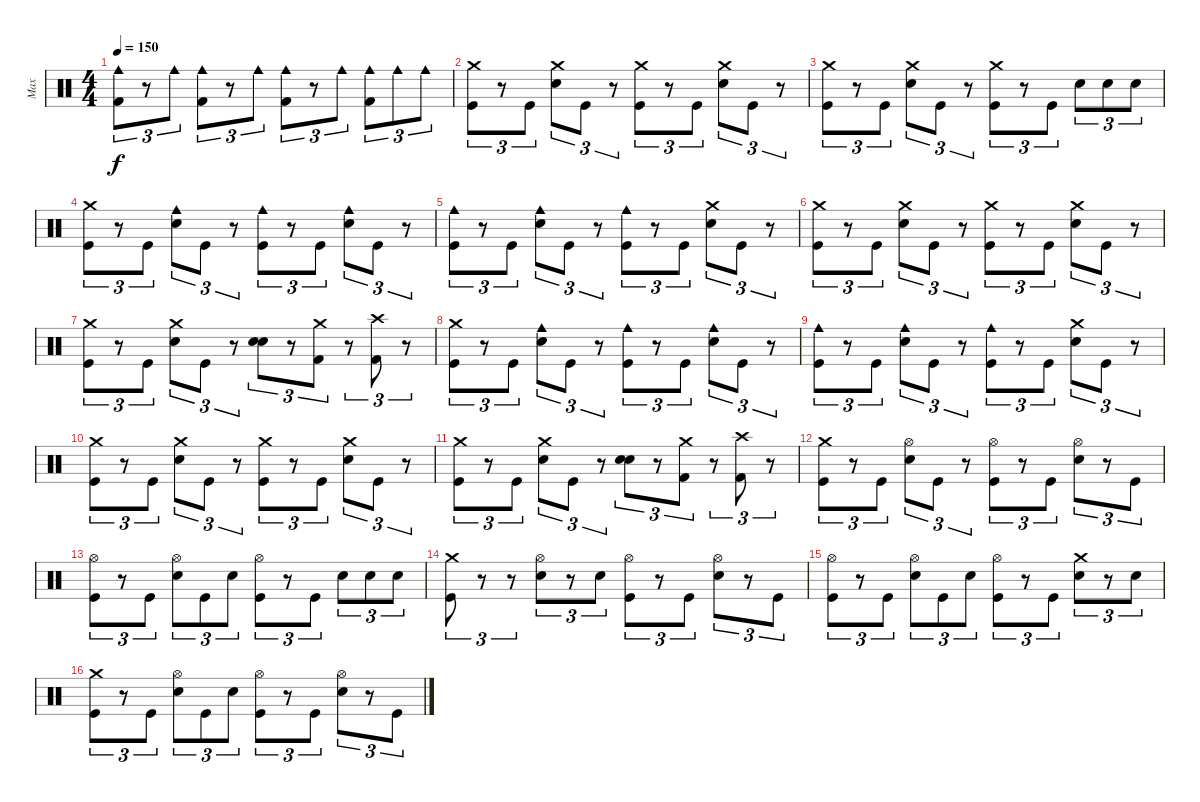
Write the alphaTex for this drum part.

\track ("Max" "Max") {instrument percussion}
\staff {score}
\articulation defaults
\ts (4 4)
\tempo 150
\clef neutral
\ks c
("Cowbell medium (hit)" "Kick (hit) 2").8{tu (3 2) dy f} r.8{tu (3 2)} "Cowbell medium (hit)".8{tu (3 2)} ("Cowbell medium (hit)" "Kick (hit) 2").8{tu (3 2)} r.8{tu (3 2)} "Cowbell medium (hit)".8{tu (3 2)} ("Cowbell medium (hit)" "Kick (hit) 2").8{tu (3 2)} r.8{tu (3 2)} "Cowbell medium (hit)".8{tu (3 2)} ("Cowbell medium (hit)" "Kick (hit) 2").8{tu (3 2)} "Cowbell medium (hit)".8{tu (3 2)} "Cowbell medium (hit)".8{tu (3 2)} |
("Crash medium (hit)" "Kick (hit)").8{tu (3 2)} r.8{tu (3 2)} "Kick (hit)".8{tu (3 2)} ("Crash medium (hit)" "Electric Snare (hit)").8{tu (3 2)} "Kick (hit)".8{tu (3 2)} r.8{tu (3 2)} ("Crash medium (hit)" "Kick (hit)").8{tu (3 2)} r.8{tu (3 2)} "Kick (hit)".8{tu (3 2)} ("Crash medium (hit)" "Electric Snare (hit)").8{tu (3 2)} "Kick (hit)".8{tu (3 2)} r.8{tu (3 2)} |
("Crash medium (hit)" "Kick (hit)").8{tu (3 2)} r.8{tu (3 2)} "Kick (hit)".8{tu (3 2)} ("Crash medium (hit)" "Electric Snare (hit)").8{tu (3 2)} "Kick (hit)".8{tu (3 2)} r.8{tu (3 2)} ("Crash medium (hit)" "Kick (hit)").8{tu (3 2)} r.8{tu (3 2)} "Kick (hit)".8{tu (3 2)} "Electric Snare (hit)".8{tu (3 2)} "Electric Snare (hit)".8{tu (3 2)} "Electric Snare (hit)".8{tu (3 2)} |
("Crash medium (hit)" "Kick (hit)").8{tu (3 2)} r.8{tu (3 2)} "Kick (hit)".8{tu (3 2)} ("Cowbell medium (hit)" "Electric Snare (hit)").8{tu (3 2)} "Kick (hit)".8{tu (3 2)} r.8{tu (3 2)} ("Cowbell medium (hit)" "Kick (hit)").8{tu (3 2)} r.8{tu (3 2)} "Kick (hit)".8{tu (3 2)} ("Cowbell medium (hit)" "Electric Snare (hit)").8{tu (3 2)} "Kick (hit)".8{tu (3 2)} r.8{tu (3 2)} |
("Cowbell medium (hit)" "Kick (hit)").8{tu (3 2)} r.8{tu (3 2)} "Kick (hit)".8{tu (3 2)} ("Cowbell medium (hit)" "Electric Snare (hit)").8{tu (3 2)} "Kick (hit)".8{tu (3 2)} r.8{tu (3 2)} ("Cowbell medium (hit)" "Kick (hit)").8{tu (3 2)} r.8{tu (3 2)} "Kick (hit)".8{tu (3 2)} ("Crash medium (hit)" "Electric Snare (hit)").8{tu (3 2)} "Kick (hit)".8{tu (3 2)} r.8{tu (3 2)} |
("Crash medium (hit)" "Kick (hit)").8{tu (3 2)} r.8{tu (3 2)} "Kick (hit)".8{tu (3 2)} ("Crash medium (hit)" "Electric Snare (hit)").8{tu (3 2)} "Kick (hit)".8{tu (3 2)} r.8{tu (3 2)} ("Crash medium (hit)" "Kick (hit)").8{tu (3 2)} r.8{tu (3 2)} "Kick (hit)".8{tu (3 2)} ("Crash medium (hit)" "Electric Snare (hit)").8{tu (3 2)} "Kick (hit)".8{tu (3 2)} r.8{tu (3 2)} |
("Crash medium (hit)" "Kick (hit)").8{tu (3 2)} r.8{tu (3 2)} "Kick (hit)".8{tu (3 2)} ("Crash medium (hit)" "Electric Snare (hit)").8{tu (3 2)} "Kick (hit)".8{tu (3 2)} r.8{tu (3 2)} ("Electric Snare (hit)" "Electric Snare (hit)").8{tu (3 2) bu 60} r.8{tu (3 2)} ("Crash medium (hit)" "Kick (hit) 2").8{tu (3 2)} r.8{tu (3 2)} ("Crash high (hit)" "Kick (hit) 2").8{tu (3 2)} r.8{tu (3 2)} |
("Crash medium (hit)" "Kick (hit)").8{tu (3 2)} r.8{tu (3 2)} "Kick (hit)".8{tu (3 2)} ("Cowbell medium (hit)" "Electric Snare (hit)").8{tu (3 2)} "Kick (hit)".8{tu (3 2)} r.8{tu (3 2)} ("Cowbell medium (hit)" "Kick (hit)").8{tu (3 2)} r.8{tu (3 2)} "Kick (hit)".8{tu (3 2)} ("Cowbell medium (hit)" "Electric Snare (hit)").8{tu (3 2)} "Kick (hit)".8{tu (3 2)} r.8{tu (3 2)} |
("Cowbell medium (hit)" "Kick (hit)").8{tu (3 2)} r.8{tu (3 2)} "Kick (hit)".8{tu (3 2)} ("Cowbell medium (hit)" "Electric Snare (hit)").8{tu (3 2)} "Kick (hit)".8{tu (3 2)} r.8{tu (3 2)} ("Cowbell medium (hit)" "Kick (hit)").8{tu (3 2)} r.8{tu (3 2)} "Kick (hit)".8{tu (3 2)} ("Crash medium (hit)" "Electric Snare (hit)").8{tu (3 2)} "Kick (hit)".8{tu (3 2)} r.8{tu (3 2)} |
("Crash medium (hit)" "Kick (hit)").8{tu (3 2)} r.8{tu (3 2)} "Kick (hit)".8{tu (3 2)} ("Crash medium (hit)" "Electric Snare (hit)").8{tu (3 2)} "Kick (hit)".8{tu (3 2)} r.8{tu (3 2)} ("Crash medium (hit)" "Kick (hit)").8{tu (3 2)} r.8{tu (3 2)} "Kick (hit)".8{tu (3 2)} ("Crash medium (hit)" "Electric Snare (hit)").8{tu (3 2)} "Kick (hit)".8{tu (3 2)} r.8{tu (3 2)} |
("Crash medium (hit)" "Kick (hit)").8{tu (3 2)} r.8{tu (3 2)} "Kick (hit)".8{tu (3 2)} ("Crash medium (hit)" "Electric Snare (hit)").8{tu (3 2)} "Kick (hit)".8{tu (3 2)} r.8{tu (3 2)} ("Electric Snare (hit)" "Electric Snare (hit)").8{tu (3 2) bu 60} r.8{tu (3 2)} ("Crash medium (hit)" "Kick (hit) 2").8{tu (3 2)} r.8{tu (3 2)} ("Crash high (hit)" "Kick (hit) 2").8{tu (3 2)} r.8{tu (3 2)} |
("Crash medium (hit)" "Kick (hit)").8{tu (3 2)} r.8{tu (3 2)} "Kick (hit)".8{tu (3 2)} ("Hi-Hat (open)" "Electric Snare (hit)").8{tu (3 2)} "Kick (hit)".8{tu (3 2)} r.8{tu (3 2)} ("Hi-Hat (open)" "Kick (hit)").8{tu (3 2)} r.8{tu (3 2)} "Kick (hit)".8{tu (3 2)} ("Hi-Hat (open)" "Electric Snare (hit)").8{tu (3 2)} r.8{tu (3 2)} "Kick (hit)".8{tu (3 2)} |
("Hi-Hat (open)" "Kick (hit)").8{tu (3 2)} r.8{tu (3 2)} "Kick (hit)".8{tu (3 2)} ("Hi-Hat (open)" "Electric Snare (hit)").8{tu (3 2)} "Kick (hit)".8{tu (3 2)} "Electric Snare (hit)".8{tu (3 2)} ("Hi-Hat (open)" "Kick (hit)").8{tu (3 2)} r.8{tu (3 2)} "Kick (hit)".8{tu (3 2)} "Electric Snare (hit)".8{tu (3 2)} "Electric Snare (hit)".8{tu (3 2)} "Electric Snare (hit)".8{tu (3 2)} |
("Crash medium (hit)" "Kick (hit)").8{tu (3 2)} r.8{tu (3 2)} r.8{tu (3 2)} ("Hi-Hat (open)" "Electric Snare (hit)").8{tu (3 2)} r.8{tu (3 2)} "Electric Snare (hit)".8{tu (3 2)} ("Hi-Hat (open)" "Kick (hit)").8{tu (3 2)} r.8{tu (3 2)} "Kick (hit)".8{tu (3 2)} ("Hi-Hat (open)" "Electric Snare (hit)").8{tu (3 2)} r.8{tu (3 2)} "Kick (hit)".8{tu (3 2)} |
("Hi-Hat (open)" "Kick (hit)").8{tu (3 2)} r.8{tu (3 2)} "Kick (hit)".8{tu (3 2)} ("Hi-Hat (open)" "Electric Snare (hit)").8{tu (3 2)} "Kick (hit)".8{tu (3 2)} "Electric Snare (hit)".8{tu (3 2)} ("Hi-Hat (open)" "Kick (hit)").8{tu (3 2)} r.8{tu (3 2)} "Kick (hit)".8{tu (3 2)} ("Crash medium (hit)" "Electric Snare (hit)").8{tu (3 2)} r.8{tu (3 2)} "Electric Snare (hit)".8{tu (3 2)} |
("Crash medium (hit)" "Kick (hit)").8{tu (3 2)} r.8{tu (3 2)} "Kick (hit)".8{tu (3 2)} ("Hi-Hat (open)" "Electric Snare (hit)").8{tu (3 2)} "Kick (hit)".8{tu (3 2)} "Electric Snare (hit)".8{tu (3 2)} ("Hi-Hat (open)" "Kick (hit)").8{tu (3 2)} r.8{tu (3 2)} "Kick (hit)".8{tu (3 2)} ("Hi-Hat (open)" "Electric Snare (hit)").8{tu (3 2)} r.8{tu (3 2)} "Kick (hit)".8{tu (3 2)}
